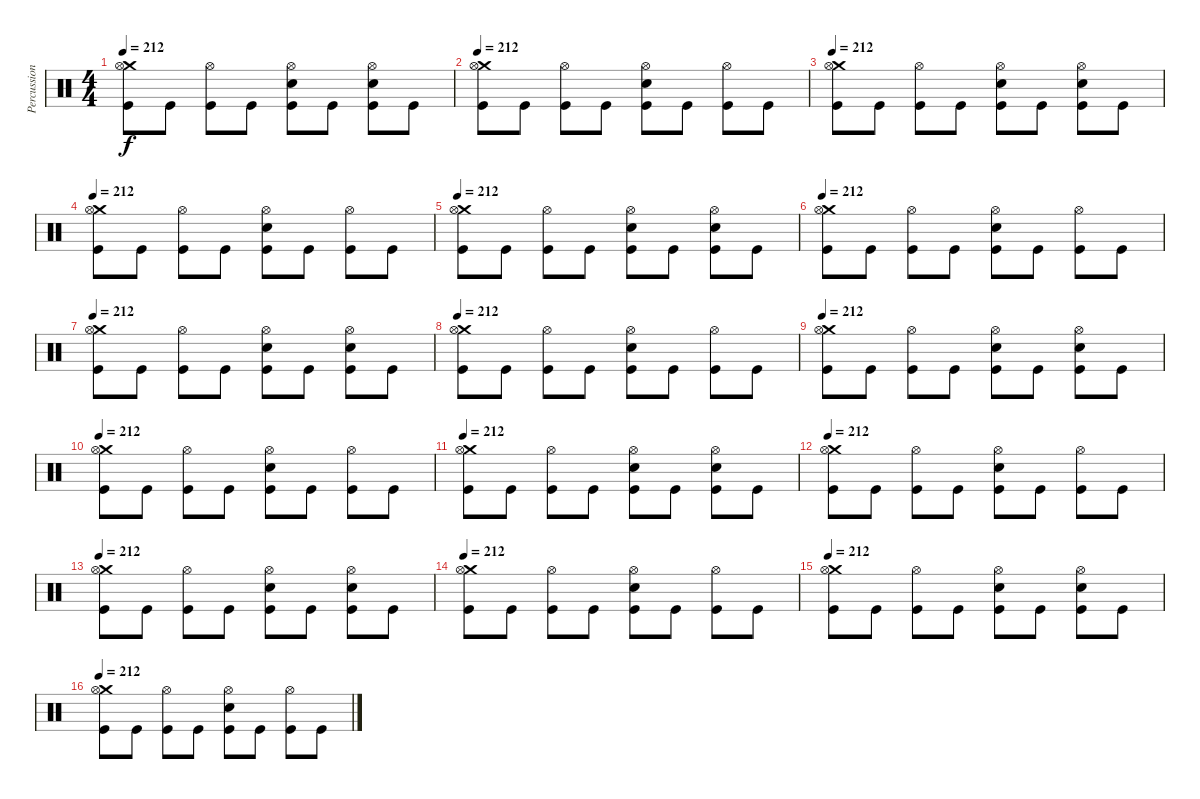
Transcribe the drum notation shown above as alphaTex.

\track ("Percussion" "Percussion") {instrument percussion}
\staff {score}
\articulation defaults
\ts (4 4)
\tempo 212
\clef neutral
\ks c
("Crash medium (hit)" "Hi-Hat (open)" "Kick (hit)").8{dy f} "Kick (hit)".8 ("Hi-Hat (open)" "Kick (hit)").8 "Kick (hit)".8 ("Electric Snare (hit)" "Hi-Hat (open)" "Kick (hit)").8 "Kick (hit)".8 ("Electric Snare (hit)" "Hi-Hat (open)" "Kick (hit)").8 "Kick (hit)".8 |
\tempo 212
("Crash medium (hit)" "Hi-Hat (open)" "Kick (hit)").8 "Kick (hit)".8 ("Hi-Hat (open)" "Kick (hit)").8 "Kick (hit)".8 ("Electric Snare (hit)" "Hi-Hat (open)" "Kick (hit)").8 "Kick (hit)".8 ("Hi-Hat (open)" "Kick (hit)").8 "Kick (hit)".8 |
\tempo 212
("Crash medium (hit)" "Hi-Hat (open)" "Kick (hit)").8 "Kick (hit)".8 ("Hi-Hat (open)" "Kick (hit)").8 "Kick (hit)".8 ("Electric Snare (hit)" "Hi-Hat (open)" "Kick (hit)").8 "Kick (hit)".8 ("Electric Snare (hit)" "Hi-Hat (open)" "Kick (hit)").8 "Kick (hit)".8 |
\tempo 212
("Crash medium (hit)" "Hi-Hat (open)" "Kick (hit)").8 "Kick (hit)".8 ("Hi-Hat (open)" "Kick (hit)").8 "Kick (hit)".8 ("Electric Snare (hit)" "Hi-Hat (open)" "Kick (hit)").8 "Kick (hit)".8 ("Hi-Hat (open)" "Kick (hit)").8 "Kick (hit)".8 |
\tempo 212
("Crash medium (hit)" "Hi-Hat (open)" "Kick (hit)").8 "Kick (hit)".8 ("Hi-Hat (open)" "Kick (hit)").8 "Kick (hit)".8 ("Electric Snare (hit)" "Hi-Hat (open)" "Kick (hit)").8 "Kick (hit)".8 ("Electric Snare (hit)" "Hi-Hat (open)" "Kick (hit)").8 "Kick (hit)".8 |
\tempo 212
("Crash medium (hit)" "Hi-Hat (open)" "Kick (hit)").8 "Kick (hit)".8 ("Hi-Hat (open)" "Kick (hit)").8 "Kick (hit)".8 ("Electric Snare (hit)" "Hi-Hat (open)" "Kick (hit)").8 "Kick (hit)".8 ("Hi-Hat (open)" "Kick (hit)").8 "Kick (hit)".8 |
\tempo 212
("Crash medium (hit)" "Hi-Hat (open)" "Kick (hit)").8 "Kick (hit)".8 ("Hi-Hat (open)" "Kick (hit)").8 "Kick (hit)".8 ("Electric Snare (hit)" "Hi-Hat (open)" "Kick (hit)").8 "Kick (hit)".8 ("Electric Snare (hit)" "Hi-Hat (open)" "Kick (hit)").8 "Kick (hit)".8 |
\tempo 212
("Crash medium (hit)" "Hi-Hat (open)" "Kick (hit)").8 "Kick (hit)".8 ("Hi-Hat (open)" "Kick (hit)").8 "Kick (hit)".8 ("Electric Snare (hit)" "Hi-Hat (open)" "Kick (hit)").8 "Kick (hit)".8 ("Hi-Hat (open)" "Kick (hit)").8 "Kick (hit)".8 |
\tempo 212
("Crash medium (hit)" "Hi-Hat (open)" "Kick (hit)").8 "Kick (hit)".8 ("Hi-Hat (open)" "Kick (hit)").8 "Kick (hit)".8 ("Electric Snare (hit)" "Hi-Hat (open)" "Kick (hit)").8 "Kick (hit)".8 ("Electric Snare (hit)" "Hi-Hat (open)" "Kick (hit)").8 "Kick (hit)".8 |
\tempo 212
("Crash medium (hit)" "Hi-Hat (open)" "Kick (hit)").8 "Kick (hit)".8 ("Hi-Hat (open)" "Kick (hit)").8 "Kick (hit)".8 ("Electric Snare (hit)" "Hi-Hat (open)" "Kick (hit)").8 "Kick (hit)".8 ("Hi-Hat (open)" "Kick (hit)").8 "Kick (hit)".8 |
\tempo 212
("Crash medium (hit)" "Hi-Hat (open)" "Kick (hit)").8 "Kick (hit)".8 ("Hi-Hat (open)" "Kick (hit)").8 "Kick (hit)".8 ("Electric Snare (hit)" "Hi-Hat (open)" "Kick (hit)").8 "Kick (hit)".8 ("Electric Snare (hit)" "Hi-Hat (open)" "Kick (hit)").8 "Kick (hit)".8 |
\tempo 212
("Crash medium (hit)" "Hi-Hat (open)" "Kick (hit)").8 "Kick (hit)".8 ("Hi-Hat (open)" "Kick (hit)").8 "Kick (hit)".8 ("Electric Snare (hit)" "Hi-Hat (open)" "Kick (hit)").8 "Kick (hit)".8 ("Hi-Hat (open)" "Kick (hit)").8 "Kick (hit)".8 |
\tempo 212
("Crash medium (hit)" "Hi-Hat (open)" "Kick (hit)").8 "Kick (hit)".8 ("Hi-Hat (open)" "Kick (hit)").8 "Kick (hit)".8 ("Electric Snare (hit)" "Hi-Hat (open)" "Kick (hit)").8 "Kick (hit)".8 ("Electric Snare (hit)" "Hi-Hat (open)" "Kick (hit)").8 "Kick (hit)".8 |
\tempo 212
("Crash medium (hit)" "Hi-Hat (open)" "Kick (hit)").8 "Kick (hit)".8 ("Hi-Hat (open)" "Kick (hit)").8 "Kick (hit)".8 ("Electric Snare (hit)" "Hi-Hat (open)" "Kick (hit)").8 "Kick (hit)".8 ("Hi-Hat (open)" "Kick (hit)").8 "Kick (hit)".8 |
\tempo 212
("Crash medium (hit)" "Hi-Hat (open)" "Kick (hit)").8 "Kick (hit)".8 ("Hi-Hat (open)" "Kick (hit)").8 "Kick (hit)".8 ("Electric Snare (hit)" "Hi-Hat (open)" "Kick (hit)").8 "Kick (hit)".8 ("Electric Snare (hit)" "Hi-Hat (open)" "Kick (hit)").8 "Kick (hit)".8 |
\tempo 212
("Crash medium (hit)" "Hi-Hat (open)" "Kick (hit)").8 "Kick (hit)".8 ("Hi-Hat (open)" "Kick (hit)").8 "Kick (hit)".8 ("Electric Snare (hit)" "Hi-Hat (open)" "Kick (hit)").8 "Kick (hit)".8 ("Hi-Hat (open)" "Kick (hit)").8 "Kick (hit)".8
